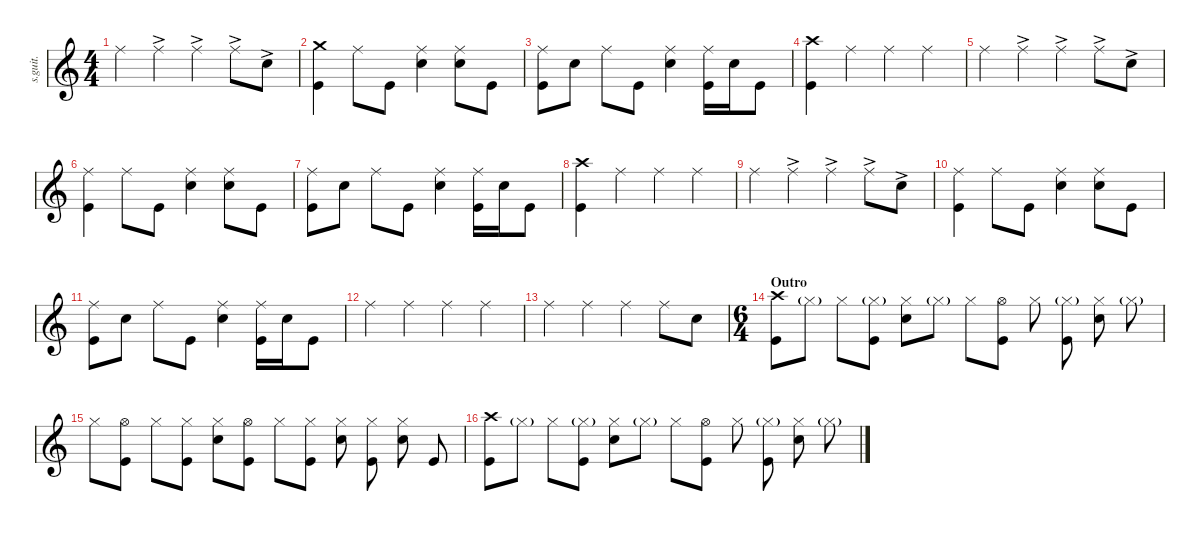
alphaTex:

\defaultSystemsLayout 4
\hideDynamics
\bracketExtendMode nobrackets
\track ("Steve Lamos" "s.guit.") {instrument percussion}
\staff {score}
\articulation defaults
\ts (4 4)
\tempo (144 hide)
\clef g2
\ks c "Ride (middle)".4{lyrics (0 "") lyrics (1 "") lyrics (2 "") lyrics (3 "") lyrics (4 "") dy ff} "Ride (middle)"{ac}.4{lyrics (0 "") lyrics (1 "") lyrics (2 "") lyrics (3 "") lyrics (4 "") dy mf} "Ride (middle)"{ac}.4{lyrics (0 "") lyrics (1 "") lyrics (2 "") lyrics (3 "") lyrics (4 "")} "Ride (middle)"{ac}.8{lyrics (0 "") lyrics (1 "") lyrics (2 "") lyrics (3 "") lyrics (4 "")} "Snare (hit) 2"{ac}.8{lyrics (0 "") lyrics (1 "") lyrics (2 "") lyrics (3 "") lyrics (4 "")}
|
("Crash medium (hit)" "Kick (hit)").4{lyrics (0 "") lyrics (1 "") lyrics (2 "") lyrics (3 "") lyrics (4 "") dy f} "Ride (middle)".8{lyrics (0 "") lyrics (1 "") lyrics (2 "") lyrics (3 "") lyrics (4 "")} "Kick (hit)".8{lyrics (0 "") lyrics (1 "") lyrics (2 "") lyrics (3 "") lyrics (4 "")} ("Ride (middle)" "Snare (hit) 2").4{lyrics (0 "") lyrics (1 "") lyrics (2 "") lyrics (3 "") lyrics (4 "")} ("Ride (middle)" "Snare (hit) 2").8{lyrics (0 "") lyrics (1 "") lyrics (2 "") lyrics (3 "") lyrics (4 "")} "Kick (hit)".8{lyrics (0 "") lyrics (1 "") lyrics (2 "") lyrics (3 "") lyrics (4 "")} |
("Ride (middle)" "Kick (hit)").8{lyrics (0 "") lyrics (1 "") lyrics (2 "") lyrics (3 "") lyrics (4 "")} "Snare (hit) 2".8{lyrics (0 "") lyrics (1 "") lyrics (2 "") lyrics (3 "") lyrics (4 "")} "Ride (middle)".8{lyrics (0 "") lyrics (1 "") lyrics (2 "") lyrics (3 "") lyrics (4 "")} "Kick (hit)".8{lyrics (0 "") lyrics (1 "") lyrics (2 "") lyrics (3 "") lyrics (4 "") dy mf} ("Ride (middle)" "Snare (hit) 2").4{lyrics (0 "") lyrics (1 "") lyrics (2 "") lyrics (3 "") lyrics (4 "") dy f} ("Ride (middle)" "Kick (hit)").16{lyrics (0 "") lyrics (1 "") lyrics (2 "") lyrics (3 "") lyrics (4 "")} "Snare (hit) 2".16{lyrics (0 "") lyrics (1 "") lyrics (2 "") lyrics (3 "") lyrics (4 "")} "Kick (hit)".8{lyrics (0 "") lyrics (1 "") lyrics (2 "") lyrics (3 "") lyrics (4 "")} |
("Crash high (hit)" "Kick (hit)").4{lyrics (0 "") lyrics (1 "") lyrics (2 "") lyrics (3 "") lyrics (4 "")} "Ride (middle)".4{lyrics (0 "") lyrics (1 "") lyrics (2 "") lyrics (3 "") lyrics (4 "")} "Ride (middle)".4{lyrics (0 "") lyrics (1 "") lyrics (2 "") lyrics (3 "") lyrics (4 "")} "Ride (middle)".4{lyrics (0 "") lyrics (1 "") lyrics (2 "") lyrics (3 "") lyrics (4 "") dy ff} |
"Ride (middle)".4{lyrics (0 "") lyrics (1 "") lyrics (2 "") lyrics (3 "") lyrics (4 "")} "Ride (middle)"{ac}.4{lyrics (0 "") lyrics (1 "") lyrics (2 "") lyrics (3 "") lyrics (4 "") dy mf} "Ride (middle)"{ac}.4{lyrics (0 "") lyrics (1 "") lyrics (2 "") lyrics (3 "") lyrics (4 "")} "Ride (middle)"{ac}.8{lyrics (0 "") lyrics (1 "") lyrics (2 "") lyrics (3 "") lyrics (4 "")} "Snare (hit) 2"{ac}.8{lyrics (0 "") lyrics (1 "") lyrics (2 "") lyrics (3 "") lyrics (4 "")} |
("Ride (middle)" "Kick (hit)").4{lyrics (0 "") lyrics (1 "") lyrics (2 "") lyrics (3 "") lyrics (4 "") dy f} "Ride (middle)".8{lyrics (0 "") lyrics (1 "") lyrics (2 "") lyrics (3 "") lyrics (4 "")} "Kick (hit)".8{lyrics (0 "") lyrics (1 "") lyrics (2 "") lyrics (3 "") lyrics (4 "")} ("Ride (middle)" "Snare (hit) 2").4{lyrics (0 "") lyrics (1 "") lyrics (2 "") lyrics (3 "") lyrics (4 "")} ("Ride (middle)" "Snare (hit) 2").8{lyrics (0 "") lyrics (1 "") lyrics (2 "") lyrics (3 "") lyrics (4 "")} "Kick (hit)".8{lyrics (0 "") lyrics (1 "") lyrics (2 "") lyrics (3 "") lyrics (4 "")} |
("Ride (middle)" "Kick (hit)").8{lyrics (0 "") lyrics (1 "") lyrics (2 "") lyrics (3 "") lyrics (4 "")} "Snare (hit) 2".8{lyrics (0 "") lyrics (1 "") lyrics (2 "") lyrics (3 "") lyrics (4 "")} "Ride (middle)".8{lyrics (0 "") lyrics (1 "") lyrics (2 "") lyrics (3 "") lyrics (4 "")} "Kick (hit)".8{lyrics (0 "") lyrics (1 "") lyrics (2 "") lyrics (3 "") lyrics (4 "")} ("Ride (middle)" "Snare (hit) 2").4{lyrics (0 "") lyrics (1 "") lyrics (2 "") lyrics (3 "") lyrics (4 "")} ("Ride (middle)" "Kick (hit)").16{lyrics (0 "") lyrics (1 "") lyrics (2 "") lyrics (3 "") lyrics (4 "")} "Snare (hit) 2".16{lyrics (0 "") lyrics (1 "") lyrics (2 "") lyrics (3 "") lyrics (4 "")} "Kick (hit)".8{lyrics (0 "") lyrics (1 "") lyrics (2 "") lyrics (3 "") lyrics (4 "")} |
("Crash high (hit)" "Kick (hit)").4{lyrics (0 "") lyrics (1 "") lyrics (2 "") lyrics (3 "") lyrics (4 "")} "Ride (middle)".4{lyrics (0 "") lyrics (1 "") lyrics (2 "") lyrics (3 "") lyrics (4 "")} "Ride (middle)".4{lyrics (0 "") lyrics (1 "") lyrics (2 "") lyrics (3 "") lyrics (4 "")} "Ride (middle)".4{lyrics (0 "") lyrics (1 "") lyrics (2 "") lyrics (3 "") lyrics (4 "") dy ff} |
"Ride (middle)".4{lyrics (0 "") lyrics (1 "") lyrics (2 "") lyrics (3 "") lyrics (4 "")} "Ride (middle)"{ac}.4{lyrics (0 "") lyrics (1 "") lyrics (2 "") lyrics (3 "") lyrics (4 "") dy mf} "Ride (middle)"{ac}.4{lyrics (0 "") lyrics (1 "") lyrics (2 "") lyrics (3 "") lyrics (4 "")} "Ride (middle)"{ac}.8{lyrics (0 "") lyrics (1 "") lyrics (2 "") lyrics (3 "") lyrics (4 "")} "Snare (hit) 2"{ac}.8{lyrics (0 "") lyrics (1 "") lyrics (2 "") lyrics (3 "") lyrics (4 "")} |
("Ride (middle)" "Kick (hit)").4{lyrics (0 "") lyrics (1 "") lyrics (2 "") lyrics (3 "") lyrics (4 "") dy f} "Ride (middle)".8{lyrics (0 "") lyrics (1 "") lyrics (2 "") lyrics (3 "") lyrics (4 "")} "Kick (hit)".8{lyrics (0 "") lyrics (1 "") lyrics (2 "") lyrics (3 "") lyrics (4 "")} ("Ride (middle)" "Snare (hit) 2").4{lyrics (0 "") lyrics (1 "") lyrics (2 "") lyrics (3 "") lyrics (4 "")} ("Ride (middle)" "Snare (hit) 2").8{lyrics (0 "") lyrics (1 "") lyrics (2 "") lyrics (3 "") lyrics (4 "")} "Kick (hit)".8{lyrics (0 "") lyrics (1 "") lyrics (2 "") lyrics (3 "") lyrics (4 "")} |
("Ride (middle)" "Kick (hit)").8{lyrics (0 "") lyrics (1 "") lyrics (2 "") lyrics (3 "") lyrics (4 "")} "Snare (hit) 2".8{lyrics (0 "") lyrics (1 "") lyrics (2 "") lyrics (3 "") lyrics (4 "")} "Ride (middle)".8{lyrics (0 "") lyrics (1 "") lyrics (2 "") lyrics (3 "") lyrics (4 "")} "Kick (hit)".8{lyrics (0 "") lyrics (1 "") lyrics (2 "") lyrics (3 "") lyrics (4 "")} ("Ride (middle)" "Snare (hit) 2").4{lyrics (0 "") lyrics (1 "") lyrics (2 "") lyrics (3 "") lyrics (4 "")} ("Ride (middle)" "Kick (hit)").16{lyrics (0 "") lyrics (1 "") lyrics (2 "") lyrics (3 "") lyrics (4 "")} "Snare (hit) 2".16{lyrics (0 "") lyrics (1 "") lyrics (2 "") lyrics (3 "") lyrics (4 "")} "Kick (hit)".8{lyrics (0 "") lyrics (1 "") lyrics (2 "") lyrics (3 "") lyrics (4 "")} |
"Ride (middle)".4{lyrics (0 "") lyrics (1 "") lyrics (2 "") lyrics (3 "") lyrics (4 "")} "Ride (middle)".4{lyrics (0 "") lyrics (1 "") lyrics (2 "") lyrics (3 "") lyrics (4 "")} "Ride (middle)".4{lyrics (0 "") lyrics (1 "") lyrics (2 "") lyrics (3 "") lyrics (4 "")} "Ride (middle)".4{lyrics (0 "") lyrics (1 "") lyrics (2 "") lyrics (3 "") lyrics (4 "")} |
"Ride (middle)".4{lyrics (0 "") lyrics (1 "") lyrics (2 "") lyrics (3 "") lyrics (4 "")} "Ride (middle)".4{lyrics (0 "") lyrics (1 "") lyrics (2 "") lyrics (3 "") lyrics (4 "")} "Ride (middle)".4{lyrics (0 "") lyrics (1 "") lyrics (2 "") lyrics (3 "") lyrics (4 "")} "Ride (middle)".8{lyrics (0 "") lyrics (1 "") lyrics (2 "") lyrics (3 "") lyrics (4 "")} "Snare (hit) 2".8{lyrics (0 "") lyrics (1 "") lyrics (2 "") lyrics (3 "") lyrics (4 "")} |
\ts (6 4)
\beaming (8 2 2 2 2)
\section ("" "Outro")
("Crash high (hit)" "Kick (hit)").8{lyrics (0 "") lyrics (1 "") lyrics (2 "") lyrics (3 "") lyrics (4 "") dy mf} "Hi-Hat (closed)"{g}.8{lyrics (0 "") lyrics (1 "") lyrics (2 "") lyrics (3 "") lyrics (4 "") dy ff} "Hi-Hat (closed)".8{lyrics (0 "") lyrics (1 "") lyrics (2 "") lyrics (3 "") lyrics (4 "") dy mf} ("Hi-Hat (closed)"{g} "Kick (hit)").8{lyrics (0 "") lyrics (1 "") lyrics (2 "") lyrics (3 "") lyrics (4 "")} ("Hi-Hat (closed)" "Snare (hit) 2").8{lyrics (0 "") lyrics (1 "") lyrics (2 "") lyrics (3 "") lyrics (4 "")} "Hi-Hat (closed)"{g}.8{lyrics (0 "") lyrics (1 "") lyrics (2 "") lyrics (3 "") lyrics (4 "") dy ff} "Hi-Hat (closed)".8{lyrics (0 "") lyrics (1 "") lyrics (2 "") lyrics (3 "") lyrics (4 "") dy mf} ("Hi-Hat (open)" "Kick (hit)").8{lyrics (0 "") lyrics (1 "") lyrics (2 "") lyrics (3 "") lyrics (4 "")} "Hi-Hat (closed)".8{lyrics (0 "") lyrics (1 "") lyrics (2 "") lyrics (3 "") lyrics (4 "")} ("Hi-Hat (closed)"{g} "Kick (hit)").8{lyrics (0 "") lyrics (1 "") lyrics (2 "") lyrics (3 "") lyrics (4 "")} ("Hi-Hat (closed)" "Snare (hit) 2").8{lyrics (0 "") lyrics (1 "") lyrics (2 "") lyrics (3 "") lyrics (4 "")} "Hi-Hat (closed)"{g}.8{lyrics (0 "") lyrics (1 "") lyrics (2 "") lyrics (3 "") lyrics (4 "") dy ff} |
"Hi-Hat (closed)".8{lyrics (0 "") lyrics (1 "") lyrics (2 "") lyrics (3 "") lyrics (4 "") dy mf} ("Hi-Hat (open)" "Kick (hit)").8{lyrics (0 "") lyrics (1 "") lyrics (2 "") lyrics (3 "") lyrics (4 "")} "Hi-Hat (closed)".8{lyrics (0 "") lyrics (1 "") lyrics (2 "") lyrics (3 "") lyrics (4 "")} ("Hi-Hat (closed)" "Kick (hit)").8{lyrics (0 "") lyrics (1 "") lyrics (2 "") lyrics (3 "") lyrics (4 "")} ("Hi-Hat (closed)" "Snare (hit) 2").8{lyrics (0 "") lyrics (1 "") lyrics (2 "") lyrics (3 "") lyrics (4 "")} ("Hi-Hat (open)" "Kick (hit)").8{lyrics (0 "") lyrics (1 "") lyrics (2 "") lyrics (3 "") lyrics (4 "")} "Hi-Hat (closed)".8{lyrics (0 "") lyrics (1 "") lyrics (2 "") lyrics (3 "") lyrics (4 "")} ("Hi-Hat (closed)" "Kick (hit)").8{lyrics (0 "") lyrics (1 "") lyrics (2 "") lyrics (3 "") lyrics (4 "")} ("Hi-Hat (closed)" "Snare (hit) 2").8{lyrics (0 "") lyrics (1 "") lyrics (2 "") lyrics (3 "") lyrics (4 "")} ("Hi-Hat (closed)" "Kick (hit)").8{lyrics (0 "") lyrics (1 "") lyrics (2 "") lyrics (3 "") lyrics (4 "") dy f} ("Hi-Hat (closed)" "Snare (hit) 2").8{lyrics (0 "") lyrics (1 "") lyrics (2 "") lyrics (3 "") lyrics (4 "")} "Kick (hit)".8{lyrics (0 "") lyrics (1 "") lyrics (2 "") lyrics (3 "") lyrics (4 "")} |
("Crash high (hit)" "Kick (hit)").8{lyrics (0 "") lyrics (1 "") lyrics (2 "") lyrics (3 "") lyrics (4 "") dy mf} "Hi-Hat (closed)"{g}.8{lyrics (0 "") lyrics (1 "") lyrics (2 "") lyrics (3 "") lyrics (4 "") dy ff} "Hi-Hat (closed)".8{lyrics (0 "") lyrics (1 "") lyrics (2 "") lyrics (3 "") lyrics (4 "") dy mf} ("Hi-Hat (closed)"{g} "Kick (hit)").8{lyrics (0 "") lyrics (1 "") lyrics (2 "") lyrics (3 "") lyrics (4 "")} ("Hi-Hat (closed)" "Snare (hit) 2").8{lyrics (0 "") lyrics (1 "") lyrics (2 "") lyrics (3 "") lyrics (4 "")} "Hi-Hat (closed)"{g}.8{lyrics (0 "") lyrics (1 "") lyrics (2 "") lyrics (3 "") lyrics (4 "") dy ff} "Hi-Hat (closed)".8{lyrics (0 "") lyrics (1 "") lyrics (2 "") lyrics (3 "") lyrics (4 "") dy mf} ("Hi-Hat (open)" "Kick (hit)").8{lyrics (0 "") lyrics (1 "") lyrics (2 "") lyrics (3 "") lyrics (4 "")} "Hi-Hat (closed)".8{lyrics (0 "") lyrics (1 "") lyrics (2 "") lyrics (3 "") lyrics (4 "")} ("Hi-Hat (closed)"{g} "Kick (hit)").8{lyrics (0 "") lyrics (1 "") lyrics (2 "") lyrics (3 "") lyrics (4 "")} ("Hi-Hat (closed)" "Snare (hit) 2").8{lyrics (0 "") lyrics (1 "") lyrics (2 "") lyrics (3 "") lyrics (4 "")} "Hi-Hat (closed)"{g}.8{lyrics (0 "") lyrics (1 "") lyrics (2 "") lyrics (3 "") lyrics (4 "") dy ff}
